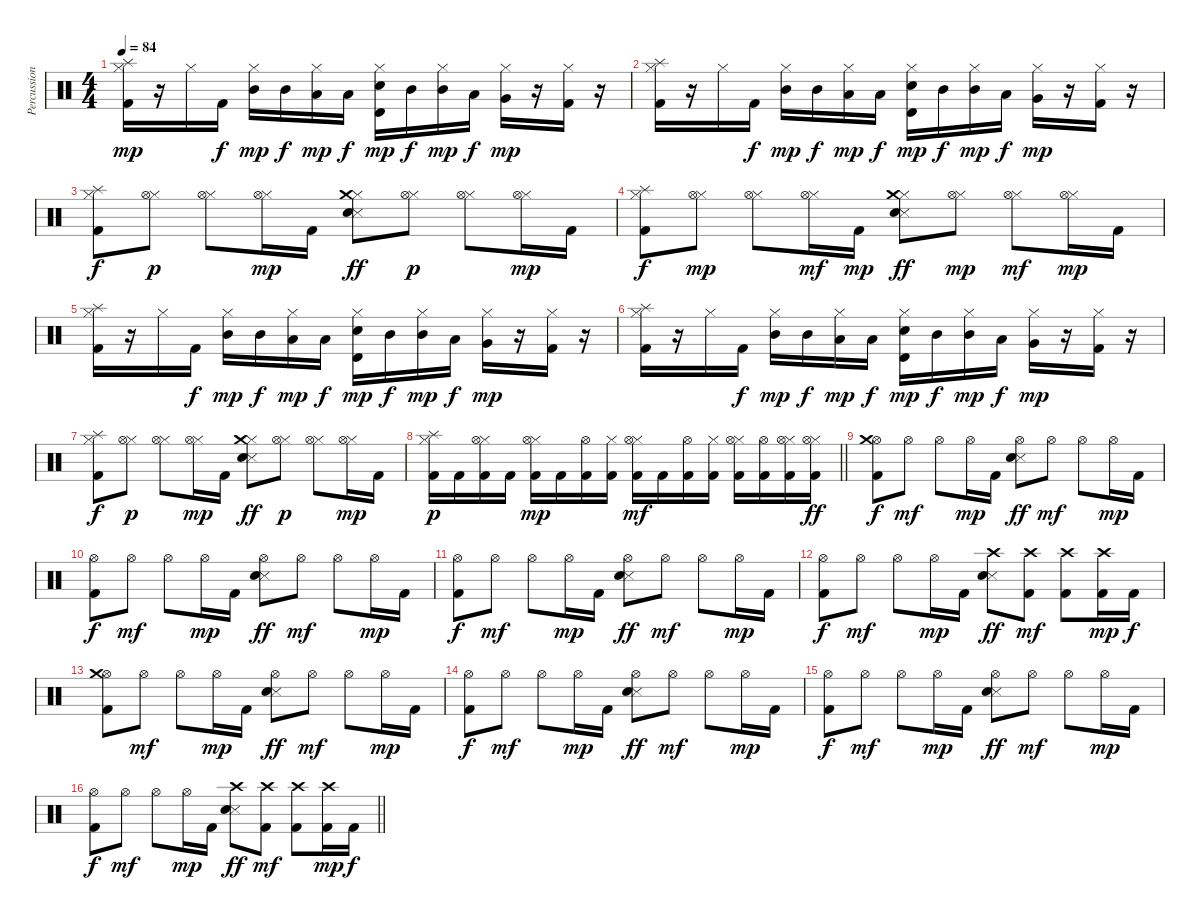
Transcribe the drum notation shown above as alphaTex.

\track ("Percussion" "Percussion") {instrument percussion}
\staff {score}
\articulation defaults
\ts (4 4)
\tempo 84
\clef neutral
\ks c
("Hi-Hat (closed)" "Splash (hit)" "Kick (hit) 2").16{dy mp} r.16 "Hi-Hat (closed)".16 "Kick (hit) 2".16{dy f} ("Hi-Hat (closed)" "Mid Tom (hit)").16{dy mp} "Mid Tom (hit)".16{dy f} ("Hi-Hat (closed)" "Low Tom (hit)").16{dy mp} "Low Tom (hit)".16{dy f} ("Hi-Hat (closed)" "Timbale high (hit)" "Electric Snare (hit)").16{dy mp} "Mid Tom (hit)".16{dy f} ("Hi-Hat (closed)" "Mid Tom (hit)").16{dy mp} "Low Tom (hit)".16{dy f} ("Hi-Hat (closed)" "Very Low Tom (hit)").16{dy mp} r.16 ("Hi-Hat (closed)" "Kick (hit) 2").16 r.16 |
("Hi-Hat (closed)" "Splash (hit)" "Kick (hit) 2").16 r.16 "Hi-Hat (closed)".16 "Kick (hit) 2".16{dy f} ("Hi-Hat (closed)" "Mid Tom (hit)").16{dy mp} "Mid Tom (hit)".16{dy f} ("Hi-Hat (closed)" "Low Tom (hit)").16{dy mp} "Low Tom (hit)".16{dy f} ("Hi-Hat (closed)" "Timbale high (hit)" "Electric Snare (hit)").16{dy mp} "Mid Tom (hit)".16{dy f} ("Hi-Hat (closed)" "Mid Tom (hit)").16{dy mp} "Low Tom (hit)".16{dy f} ("Hi-Hat (closed)" "Very Low Tom (hit)").16{dy mp} r.16 ("Hi-Hat (closed)" "Kick (hit) 2").16 r.16 |
("Hi-Hat (closed)" "Splash (hit)" "Kick (hit) 2").8{dy f} ("Hi-Hat (closed)" "Hi-Hat (open)").8{dy p} ("Hi-Hat (closed)" "Hi-Hat (open)").8 ("Hi-Hat (closed)" "Hi-Hat (open)").16{dy mp} "Kick (hit) 2".16 ("Hi-Hat (closed)" "Crash medium (hit)" "Snare (side stick) 3" "Electric Snare (hit)").8{dy ff} ("Hi-Hat (closed)" "Hi-Hat (open)").8{dy p} ("Hi-Hat (closed)" "Hi-Hat (open)").8 ("Hi-Hat (closed)" "Hi-Hat (open)").16{dy mp} "Kick (hit) 2".16 |
("Hi-Hat (closed)" "Splash (hit)" "Kick (hit) 2").8{dy f} ("Hi-Hat (closed)" "Hi-Hat (open)").8{dy mp} ("Hi-Hat (closed)" "Hi-Hat (open)").8 ("Hi-Hat (closed)" "Hi-Hat (open)").16{dy mf} "Kick (hit) 2".16{dy mp} ("Hi-Hat (closed)" "Crash medium (hit)" "Snare (side stick) 3" "Electric Snare (hit)").8{dy ff} ("Hi-Hat (closed)" "Hi-Hat (open)").8{dy mp} ("Hi-Hat (closed)" "Hi-Hat (open)").8{dy mf} ("Hi-Hat (closed)" "Hi-Hat (open)").16{dy mp} "Kick (hit) 2".16 |
("Hi-Hat (closed)" "Splash (hit)" "Kick (hit) 2").16 r.16 "Hi-Hat (closed)".16 "Kick (hit) 2".16{dy f} ("Hi-Hat (closed)" "Mid Tom (hit)").16{dy mp} "Mid Tom (hit)".16{dy f} ("Hi-Hat (closed)" "Low Tom (hit)").16{dy mp} "Low Tom (hit)".16{dy f} ("Hi-Hat (closed)" "Timbale high (hit)" "Electric Snare (hit)").16{dy mp} "Mid Tom (hit)".16{dy f} ("Hi-Hat (closed)" "Mid Tom (hit)").16{dy mp} "Low Tom (hit)".16{dy f} ("Hi-Hat (closed)" "Very Low Tom (hit)").16{dy mp} r.16 ("Hi-Hat (closed)" "Kick (hit) 2").16 r.16 |
("Hi-Hat (closed)" "Splash (hit)" "Kick (hit) 2").16 r.16 "Hi-Hat (closed)".16 "Kick (hit) 2".16{dy f} ("Hi-Hat (closed)" "Mid Tom (hit)").16{dy mp} "Mid Tom (hit)".16{dy f} ("Hi-Hat (closed)" "Low Tom (hit)").16{dy mp} "Low Tom (hit)".16{dy f} ("Hi-Hat (closed)" "Timbale high (hit)" "Electric Snare (hit)").16{dy mp} "Mid Tom (hit)".16{dy f} ("Hi-Hat (closed)" "Mid Tom (hit)").16{dy mp} "Low Tom (hit)".16{dy f} ("Hi-Hat (closed)" "Very Low Tom (hit)").16{dy mp} r.16 ("Hi-Hat (closed)" "Kick (hit) 2").16 r.16 |
("Hi-Hat (closed)" "Splash (hit)" "Kick (hit) 2").8{dy f} ("Hi-Hat (closed)" "Hi-Hat (open)").8{dy p} ("Hi-Hat (closed)" "Hi-Hat (open)").8 ("Hi-Hat (closed)" "Hi-Hat (open)").16{dy mp} "Kick (hit) 2".16 ("Hi-Hat (closed)" "Crash medium (hit)" "Snare (side stick) 3" "Electric Snare (hit)").8{dy ff} ("Hi-Hat (closed)" "Hi-Hat (open)").8{dy p} ("Hi-Hat (closed)" "Hi-Hat (open)").8 ("Hi-Hat (closed)" "Hi-Hat (open)").16{dy mp} "Kick (hit) 2".16 |
\barLineRight lightlight
("Hi-Hat (closed)" "Splash (hit)" "Kick (hit) 2").16{dy p} "Kick (hit) 2".16 ("Hi-Hat (closed)" "Hi-Hat (open)" "Kick (hit) 2").16 "Kick (hit) 2".16 ("Hi-Hat (closed)" "Hi-Hat (open)" "Kick (hit) 2").16{dy mp} "Kick (hit) 2".16 ("Hi-Hat (open)" "Kick (hit) 2").16 ("Hi-Hat (closed)" "Kick (hit) 2").16 ("Hi-Hat (closed)" "Hi-Hat (open)" "Kick (hit) 2").16{dy mf} "Kick (hit) 2".16 ("Hi-Hat (open)" "Kick (hit) 2").16 ("Hi-Hat (closed)" "Kick (hit) 2").16 ("Hi-Hat (closed)" "Hi-Hat (open)" "Kick (hit) 2").16 ("Hi-Hat (open)" "Kick (hit) 2").16 ("Hi-Hat (closed)" "Hi-Hat (open)" "Kick (hit) 2").16 ("Hi-Hat (closed)" "Hi-Hat (open)" "Kick (hit) 2").16{dy ff} |
("Hi-Hat (open)" "Crash medium (hit)" "Kick (hit) 2").8{dy f} "Hi-Hat (open)".8{dy mf} "Hi-Hat (open)".8 "Hi-Hat (open)".16{dy mp} "Kick (hit) 2".16 ("Hi-Hat (open)" "Snare (side stick) 3" "Electric Snare (hit)").8{dy ff} "Hi-Hat (open)".8{dy mf} "Hi-Hat (open)".8 "Hi-Hat (open)".16{dy mp} "Kick (hit) 2".16 |
("Hi-Hat (open)" "Kick (hit) 2").8{dy f} "Hi-Hat (open)".8{dy mf} "Hi-Hat (open)".8 "Hi-Hat (open)".16{dy mp} "Kick (hit) 2".16 ("Hi-Hat (open)" "Snare (side stick) 3" "Electric Snare (hit)").8{dy ff} "Hi-Hat (open)".8{dy mf} "Hi-Hat (open)".8 "Hi-Hat (open)".16{dy mp} "Kick (hit) 2".16 |
("Hi-Hat (open)" "Kick (hit) 2").8{dy f} "Hi-Hat (open)".8{dy mf} "Hi-Hat (open)".8 "Hi-Hat (open)".16{dy mp} "Kick (hit) 2".16 ("Hi-Hat (open)" "Snare (side stick) 3" "Electric Snare (hit)").8{dy ff} "Hi-Hat (open)".8{dy mf} "Hi-Hat (open)".8 "Hi-Hat (open)".16{dy mp} "Kick (hit) 2".16 |
("Hi-Hat (open)" "Kick (hit) 2").8{dy f} "Hi-Hat (open)".8{dy mf} "Hi-Hat (open)".8 "Hi-Hat (open)".16{dy mp} "Kick (hit) 2".16 ("Crash high (hit)" "Snare (side stick) 3" "Electric Snare (hit)").8{dy ff} ("Crash high (hit)" "Kick (hit) 2").8{dy mf} ("Crash high (hit)" "Kick (hit) 2").8 ("Crash high (hit)" "Kick (hit) 2").16{dy mp} "Kick (hit) 2".16{dy f} |
("Hi-Hat (open)" "Crash medium (hit)" "Kick (hit) 2").8 "Hi-Hat (open)".8{dy mf} "Hi-Hat (open)".8 "Hi-Hat (open)".16{dy mp} "Kick (hit) 2".16 ("Hi-Hat (open)" "Snare (side stick) 3" "Electric Snare (hit)").8{dy ff} "Hi-Hat (open)".8{dy mf} "Hi-Hat (open)".8 "Hi-Hat (open)".16{dy mp} "Kick (hit) 2".16 |
("Hi-Hat (open)" "Kick (hit) 2").8{dy f} "Hi-Hat (open)".8{dy mf} "Hi-Hat (open)".8 "Hi-Hat (open)".16{dy mp} "Kick (hit) 2".16 ("Hi-Hat (open)" "Snare (side stick) 3" "Electric Snare (hit)").8{dy ff} "Hi-Hat (open)".8{dy mf} "Hi-Hat (open)".8 "Hi-Hat (open)".16{dy mp} "Kick (hit) 2".16 |
("Hi-Hat (open)" "Kick (hit) 2").8{dy f} "Hi-Hat (open)".8{dy mf} "Hi-Hat (open)".8 "Hi-Hat (open)".16{dy mp} "Kick (hit) 2".16 ("Hi-Hat (open)" "Snare (side stick) 3" "Electric Snare (hit)").8{dy ff} "Hi-Hat (open)".8{dy mf} "Hi-Hat (open)".8 "Hi-Hat (open)".16{dy mp} "Kick (hit) 2".16 |
\barLineRight lightlight
("Hi-Hat (open)" "Kick (hit) 2").8{dy f} "Hi-Hat (open)".8{dy mf} "Hi-Hat (open)".8 "Hi-Hat (open)".16{dy mp} "Kick (hit) 2".16 ("Crash high (hit)" "Snare (side stick) 3" "Electric Snare (hit)").8{dy ff} ("Crash high (hit)" "Kick (hit) 2").8{dy mf} ("Crash high (hit)" "Kick (hit) 2").8 ("Crash high (hit)" "Kick (hit) 2").16{dy mp} "Kick (hit) 2".16{dy f}
